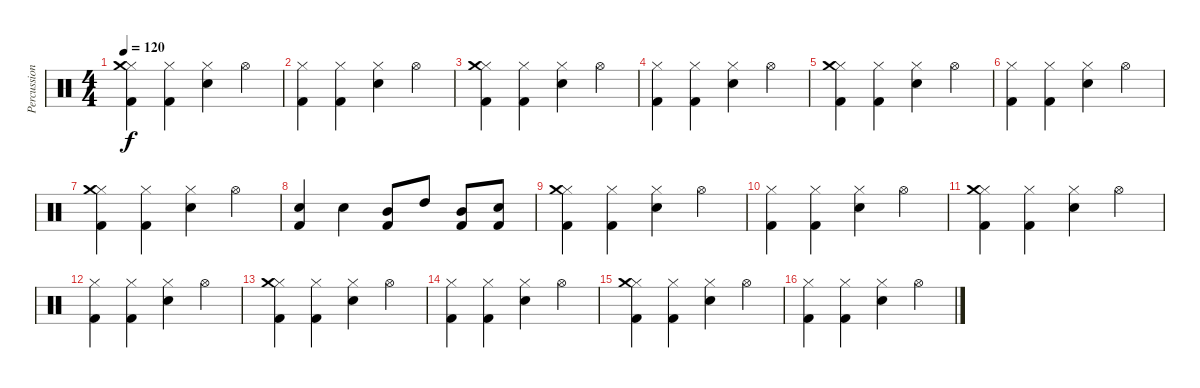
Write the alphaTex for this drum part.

\track ("Percussion" "Percussion") {instrument percussion}
\staff {score}
\articulation defaults
\ts (4 4)
\tempo 120
\clef neutral
\ks c
("Hi-Hat (closed)" "Kick (hit) 2" "Crash medium (hit)").4{dy f} ("Hi-Hat (closed)" "Kick (hit) 2").4 ("Hi-Hat (closed)" "Snare (hit) 2").4 "Hi-Hat (open)".4 |
("Hi-Hat (closed)" "Kick (hit) 2").4 ("Hi-Hat (closed)" "Kick (hit) 2").4 ("Hi-Hat (closed)" "Snare (hit) 2").4 "Hi-Hat (open)".4 |
("Hi-Hat (closed)" "Kick (hit) 2" "Crash medium (hit)").4 ("Hi-Hat (closed)" "Kick (hit) 2").4 ("Hi-Hat (closed)" "Snare (hit) 2").4 "Hi-Hat (open)".4 |
("Hi-Hat (closed)" "Kick (hit) 2").4 ("Hi-Hat (closed)" "Kick (hit) 2").4 ("Hi-Hat (closed)" "Snare (hit) 2").4 "Hi-Hat (open)".4 |
("Hi-Hat (closed)" "Kick (hit) 2" "Crash medium (hit)").4 ("Hi-Hat (closed)" "Kick (hit) 2").4 ("Hi-Hat (closed)" "Snare (hit) 2").4 "Hi-Hat (open)".4 |
("Hi-Hat (closed)" "Kick (hit) 2").4 ("Hi-Hat (closed)" "Kick (hit) 2").4 ("Hi-Hat (closed)" "Snare (hit) 2").4 "Hi-Hat (open)".4 |
("Hi-Hat (closed)" "Kick (hit) 2" "Crash medium (hit)").4 ("Hi-Hat (closed)" "Kick (hit) 2").4 ("Hi-Hat (closed)" "Snare (hit) 2").4 "Hi-Hat (open)".4 |
("Snare (hit) 2" "Kick (hit) 2").4 "Snare (hit) 2".4 ("Mid Tom (hit)" "Kick (hit) 2").8 "High Tom (hit)".8 ("Mid Tom (hit)" "Kick (hit) 2").8 ("Snare (hit) 2" "Kick (hit) 2").8 |
("Hi-Hat (closed)" "Kick (hit) 2" "Crash medium (hit)").4 ("Hi-Hat (closed)" "Kick (hit) 2").4 ("Hi-Hat (closed)" "Snare (hit) 2").4 "Hi-Hat (open)".4 |
("Hi-Hat (closed)" "Kick (hit) 2").4 ("Hi-Hat (closed)" "Kick (hit) 2").4 ("Hi-Hat (closed)" "Snare (hit) 2").4 "Hi-Hat (open)".4 |
("Hi-Hat (closed)" "Kick (hit) 2" "Crash medium (hit)").4 ("Hi-Hat (closed)" "Kick (hit) 2").4 ("Hi-Hat (closed)" "Snare (hit) 2").4 "Hi-Hat (open)".4 |
("Hi-Hat (closed)" "Kick (hit) 2").4 ("Hi-Hat (closed)" "Kick (hit) 2").4 ("Hi-Hat (closed)" "Snare (hit) 2").4 "Hi-Hat (open)".4 |
("Hi-Hat (closed)" "Kick (hit) 2" "Crash medium (hit)").4 ("Hi-Hat (closed)" "Kick (hit) 2").4 ("Hi-Hat (closed)" "Snare (hit) 2").4 "Hi-Hat (open)".4 |
("Hi-Hat (closed)" "Kick (hit) 2").4 ("Hi-Hat (closed)" "Kick (hit) 2").4 ("Hi-Hat (closed)" "Snare (hit) 2").4 "Hi-Hat (open)".4 |
("Hi-Hat (closed)" "Kick (hit) 2" "Crash medium (hit)").4 ("Hi-Hat (closed)" "Kick (hit) 2").4 ("Hi-Hat (closed)" "Snare (hit) 2").4 "Hi-Hat (open)".4 |
("Hi-Hat (closed)" "Kick (hit) 2").4 ("Hi-Hat (closed)" "Kick (hit) 2").4 ("Hi-Hat (closed)" "Snare (hit) 2").4 "Hi-Hat (open)".4
